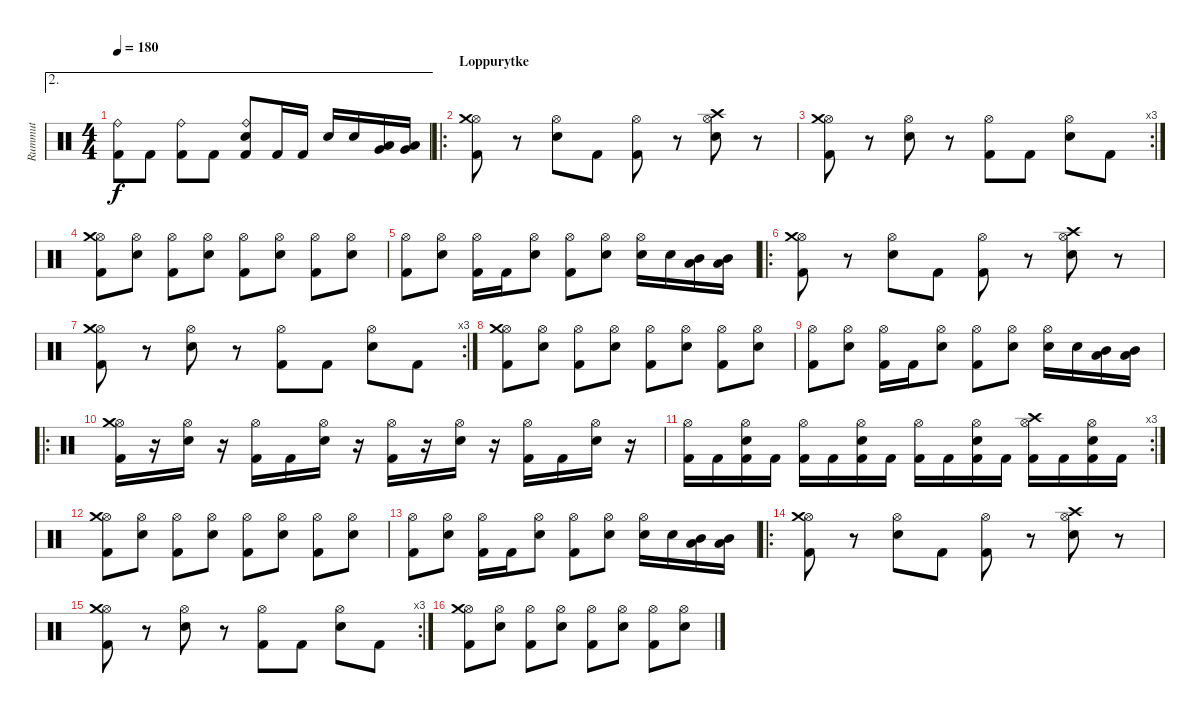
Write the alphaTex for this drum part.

\track ("Rummut" "Rummut") {instrument percussion}
\staff {score}
\articulation defaults
\ae 2
\ts (4 4)
\tempo 180
\clef neutral
\ks c
("Kick (hit) 2" "Ride (bell)").8{dy f} "Kick (hit) 2".8 ("Kick (hit) 2" "Ride (bell)").8 "Kick (hit) 2".8 ("Kick (hit) 2" "Snare (hit) 2" "Ride (bell)").8 "Kick (hit) 2".16 "Kick (hit) 2".16 "Snare (hit) 2".16 "Snare (hit) 2".16 ("Low Tom (hit)" "Very Low Tom (hit)").16 ("Low Tom (hit)" "Very Low Tom (hit)").16 |
\ro
\section ("" "Loppurytke")
("Kick (hit) 2" "Hi-Hat (open)" "Crash medium (hit)").8 r.8 ("Snare (hit) 2" "Hi-Hat (open)").8 "Kick (hit) 2".8 ("Kick (hit) 2" "Hi-Hat (open)").8 r.8 ("Snare (hit) 2" "Hi-Hat (open)" "Crash high (hit)").8 r.8 |
\rc 3
("Kick (hit) 2" "Hi-Hat (open)" "Crash medium (hit)").8 r.8 ("Snare (hit) 2" "Hi-Hat (open)").8 r.8 ("Kick (hit) 2" "Hi-Hat (open)").8 "Kick (hit) 2".8 ("Snare (hit) 2" "Hi-Hat (open)").8 "Kick (hit) 2".8 |
("Kick (hit) 2" "Hi-Hat (open)" "Crash medium (hit)").8 ("Snare (hit) 2" "Hi-Hat (open)").8 ("Kick (hit) 2" "Hi-Hat (open)").8 ("Snare (hit) 2" "Hi-Hat (open)").8 ("Kick (hit) 2" "Hi-Hat (open)").8 ("Snare (hit) 2" "Hi-Hat (open)").8 ("Kick (hit) 2" "Hi-Hat (open)").8 ("Snare (hit) 2" "Hi-Hat (open)").8 |
("Kick (hit) 2" "Hi-Hat (open)").8 ("Snare (hit) 2" "Hi-Hat (open)").8 ("Kick (hit) 2" "Hi-Hat (open)").16 "Kick (hit) 2".16 ("Snare (hit) 2" "Hi-Hat (open)").8 ("Kick (hit) 2" "Hi-Hat (open)").8 ("Snare (hit) 2" "Hi-Hat (open)").8 ("Snare (hit) 2" "Hi-Hat (open)").16 "Snare (hit) 2".16 ("Mid Tom (hit)" "Low Tom (hit)").16 ("Mid Tom (hit)" "Low Tom (hit)").16 |
\ro
("Kick (hit) 2" "Hi-Hat (open)" "Crash medium (hit)").8 r.8 ("Snare (hit) 2" "Hi-Hat (open)").8 "Kick (hit) 2".8 ("Kick (hit) 2" "Hi-Hat (open)").8 r.8 ("Snare (hit) 2" "Hi-Hat (open)" "Crash high (hit)").8 r.8 |
\rc 3
("Kick (hit) 2" "Hi-Hat (open)" "Crash medium (hit)").8 r.8 ("Snare (hit) 2" "Hi-Hat (open)").8 r.8 ("Kick (hit) 2" "Hi-Hat (open)").8 "Kick (hit) 2".8 ("Snare (hit) 2" "Hi-Hat (open)").8 "Kick (hit) 2".8 |
("Kick (hit) 2" "Hi-Hat (open)" "Crash medium (hit)").8 ("Snare (hit) 2" "Hi-Hat (open)").8 ("Kick (hit) 2" "Hi-Hat (open)").8 ("Snare (hit) 2" "Hi-Hat (open)").8 ("Kick (hit) 2" "Hi-Hat (open)").8 ("Snare (hit) 2" "Hi-Hat (open)").8 ("Kick (hit) 2" "Hi-Hat (open)").8 ("Snare (hit) 2" "Hi-Hat (open)").8 |
("Kick (hit) 2" "Hi-Hat (open)").8 ("Snare (hit) 2" "Hi-Hat (open)").8 ("Kick (hit) 2" "Hi-Hat (open)").16 "Kick (hit) 2".16 ("Snare (hit) 2" "Hi-Hat (open)").8 ("Kick (hit) 2" "Hi-Hat (open)").8 ("Snare (hit) 2" "Hi-Hat (open)").8 ("Snare (hit) 2" "Hi-Hat (open)").16 "Snare (hit) 2".16 ("Mid Tom (hit)" "Low Tom (hit)").16 ("Mid Tom (hit)" "Low Tom (hit)").16 |
\ro
("Kick (hit) 2" "Hi-Hat (open)" "Crash medium (hit)").16 r.16 ("Snare (hit) 2" "Hi-Hat (open)").16 r.16 ("Kick (hit) 2" "Hi-Hat (open)").16 "Kick (hit) 2".16 ("Snare (hit) 2" "Hi-Hat (open)").16 r.16 ("Kick (hit) 2" "Hi-Hat (open)").16 r.16 ("Snare (hit) 2" "Hi-Hat (open)").16 r.16 ("Kick (hit) 2" "Hi-Hat (open)").16 "Kick (hit) 2".16 ("Snare (hit) 2" "Hi-Hat (open)").16 r.16 |
\rc 3
("Kick (hit) 2" "Hi-Hat (open)").16 "Kick (hit) 2".16 ("Kick (hit) 2" "Snare (hit) 2" "Hi-Hat (open)").16 "Kick (hit) 2".16 ("Kick (hit) 2" "Hi-Hat (open)").16 "Kick (hit) 2".16 ("Kick (hit) 2" "Snare (hit) 2" "Hi-Hat (open)").16 "Kick (hit) 2".16 ("Kick (hit) 2" "Hi-Hat (open)").16 "Kick (hit) 2".16 ("Kick (hit) 2" "Snare (hit) 2" "Hi-Hat (open)").16 "Kick (hit) 2".16 ("Kick (hit) 2" "Hi-Hat (open)" "Crash high (hit)").16 "Kick (hit) 2".16 ("Kick (hit) 2" "Snare (hit) 2" "Hi-Hat (open)").16 "Kick (hit) 2".16 |
("Kick (hit) 2" "Hi-Hat (open)" "Crash medium (hit)").8 ("Snare (hit) 2" "Hi-Hat (open)").8 ("Kick (hit) 2" "Hi-Hat (open)").8 ("Snare (hit) 2" "Hi-Hat (open)").8 ("Kick (hit) 2" "Hi-Hat (open)").8 ("Snare (hit) 2" "Hi-Hat (open)").8 ("Kick (hit) 2" "Hi-Hat (open)").8 ("Snare (hit) 2" "Hi-Hat (open)").8 |
("Kick (hit) 2" "Hi-Hat (open)").8 ("Snare (hit) 2" "Hi-Hat (open)").8 ("Kick (hit) 2" "Hi-Hat (open)").16 "Kick (hit) 2".16 ("Snare (hit) 2" "Hi-Hat (open)").8 ("Kick (hit) 2" "Hi-Hat (open)").8 ("Snare (hit) 2" "Hi-Hat (open)").8 ("Snare (hit) 2" "Hi-Hat (open)").16 "Snare (hit) 2".16 ("Mid Tom (hit)" "Low Tom (hit)").16 ("Mid Tom (hit)" "Low Tom (hit)").16 |
\ro
("Kick (hit) 2" "Hi-Hat (open)" "Crash medium (hit)").8 r.8 ("Snare (hit) 2" "Hi-Hat (open)").8 "Kick (hit) 2".8 ("Kick (hit) 2" "Hi-Hat (open)").8 r.8 ("Snare (hit) 2" "Hi-Hat (open)" "Crash high (hit)").8 r.8 |
\rc 3
("Kick (hit) 2" "Hi-Hat (open)" "Crash medium (hit)").8 r.8 ("Snare (hit) 2" "Hi-Hat (open)").8 r.8 ("Kick (hit) 2" "Hi-Hat (open)").8 "Kick (hit) 2".8 ("Snare (hit) 2" "Hi-Hat (open)").8 "Kick (hit) 2".8 |
("Kick (hit) 2" "Hi-Hat (open)" "Crash medium (hit)").8 ("Snare (hit) 2" "Hi-Hat (open)").8 ("Kick (hit) 2" "Hi-Hat (open)").8 ("Snare (hit) 2" "Hi-Hat (open)").8 ("Kick (hit) 2" "Hi-Hat (open)").8 ("Snare (hit) 2" "Hi-Hat (open)").8 ("Kick (hit) 2" "Hi-Hat (open)").8 ("Snare (hit) 2" "Hi-Hat (open)").8
